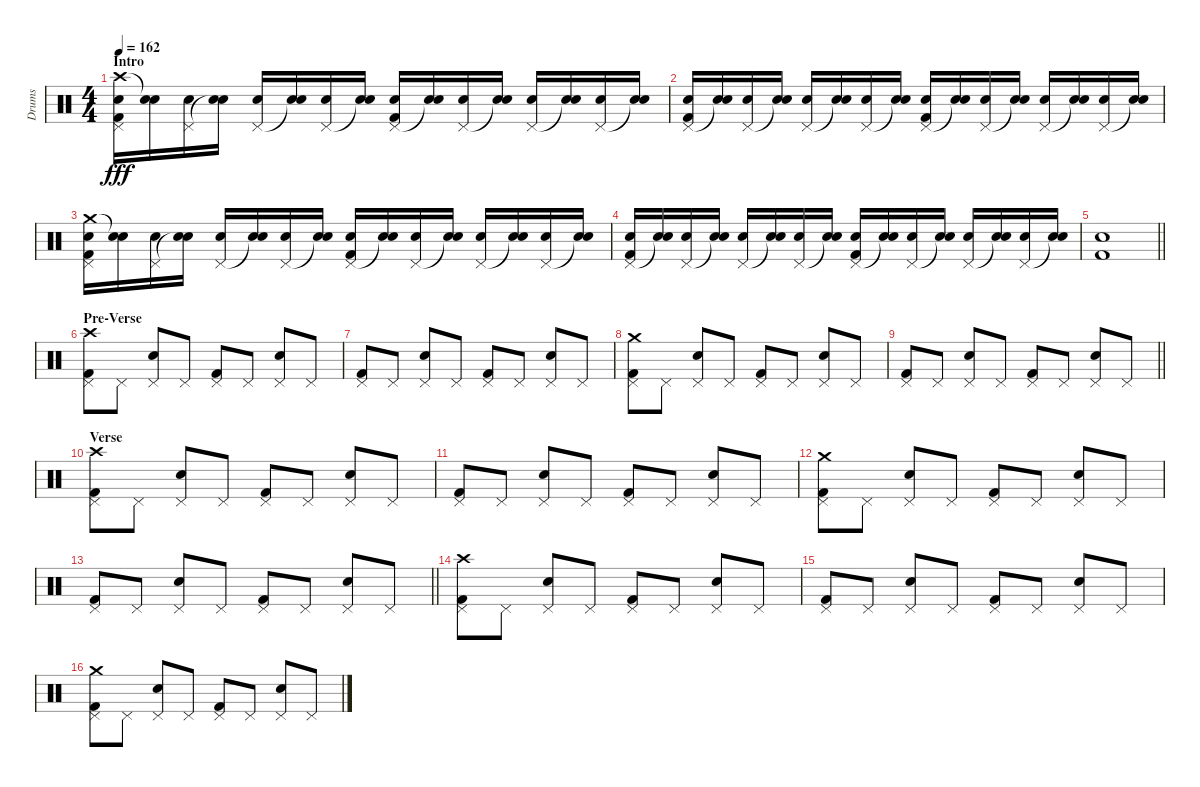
\track ("Drums" "Drums") {instrument percussion}
\staff {score}
\articulation defaults
\ts (4 4)
\section ("" "Intro")
\tempo 162
\clef neutral
\ks c
("Crash high (hit)" "Pedal Hi-Hat (hit)" "Snare (hit) 2" "Kick (hit) 2").16{dy fff} ("Snare (hit)"{t} "Snare (hit) 2").16 ("Pedal Hi-Hat (hit)" "Snare (hit) 2").16 ("Snare (hit)"{t} "Snare (hit) 2").16 ("Pedal Hi-Hat (hit)" "Snare (hit) 2").16 ("Snare (hit)"{t} "Snare (hit) 2").16 ("Pedal Hi-Hat (hit)" "Snare (hit) 2").16 ("Snare (hit)"{t} "Snare (hit) 2").16 ("Pedal Hi-Hat (hit)" "Snare (hit) 2" "Kick (hit) 2").16 ("Snare (hit)"{t} "Snare (hit) 2").16 ("Pedal Hi-Hat (hit)" "Snare (hit) 2").16 ("Snare (hit)"{t} "Snare (hit) 2").16 ("Pedal Hi-Hat (hit)" "Snare (hit) 2").16 ("Snare (hit)"{t} "Snare (hit) 2").16 ("Pedal Hi-Hat (hit)" "Snare (hit) 2").16 ("Snare (hit)"{t} "Snare (hit) 2").16 |
("Pedal Hi-Hat (hit)" "Snare (hit) 2" "Kick (hit) 2").16 ("Snare (hit)"{t} "Snare (hit) 2").16 ("Pedal Hi-Hat (hit)" "Snare (hit) 2").16 ("Snare (hit)"{t} "Snare (hit) 2").16 ("Pedal Hi-Hat (hit)" "Snare (hit) 2").16 ("Snare (hit)"{t} "Snare (hit) 2").16 ("Pedal Hi-Hat (hit)" "Snare (hit) 2").16 ("Snare (hit)"{t} "Snare (hit) 2").16 ("Pedal Hi-Hat (hit)" "Snare (hit) 2" "Kick (hit) 2").16 ("Snare (hit)"{t} "Snare (hit) 2").16 ("Pedal Hi-Hat (hit)" "Snare (hit) 2").16 ("Snare (hit)"{t} "Snare (hit) 2").16 ("Pedal Hi-Hat (hit)" "Snare (hit) 2").16 ("Snare (hit)"{t} "Snare (hit) 2").16 ("Pedal Hi-Hat (hit)" "Snare (hit) 2").16 ("Snare (hit)"{t} "Snare (hit) 2").16 |
("Crash medium (hit)" "Pedal Hi-Hat (hit)" "Snare (hit) 2" "Kick (hit) 2").16 ("Snare (hit)"{t} "Snare (hit) 2").16 ("Pedal Hi-Hat (hit)" "Snare (hit) 2").16 ("Snare (hit)"{t} "Snare (hit) 2").16 ("Pedal Hi-Hat (hit)" "Snare (hit) 2").16 ("Snare (hit)"{t} "Snare (hit) 2").16 ("Pedal Hi-Hat (hit)" "Snare (hit) 2").16 ("Snare (hit)"{t} "Snare (hit) 2").16 ("Pedal Hi-Hat (hit)" "Snare (hit) 2" "Kick (hit) 2").16 ("Snare (hit)"{t} "Snare (hit) 2").16 ("Pedal Hi-Hat (hit)" "Snare (hit) 2").16 ("Snare (hit)"{t} "Snare (hit) 2").16 ("Pedal Hi-Hat (hit)" "Snare (hit) 2").16 ("Snare (hit)"{t} "Snare (hit) 2").16 ("Pedal Hi-Hat (hit)" "Snare (hit) 2").16 ("Snare (hit)"{t} "Snare (hit) 2").16 |
("Pedal Hi-Hat (hit)" "Snare (hit) 2" "Kick (hit) 2").16 ("Snare (hit)"{t} "Snare (hit) 2").16 ("Pedal Hi-Hat (hit)" "Snare (hit) 2").16 ("Snare (hit)"{t} "Snare (hit) 2").16 ("Pedal Hi-Hat (hit)" "Snare (hit) 2").16 ("Snare (hit)"{t} "Snare (hit) 2").16 ("Pedal Hi-Hat (hit)" "Snare (hit) 2").16 ("Snare (hit)"{t} "Snare (hit) 2").16 ("Pedal Hi-Hat (hit)" "Snare (hit) 2" "Kick (hit) 2").16 ("Snare (hit)"{t} "Snare (hit) 2").16 ("Pedal Hi-Hat (hit)" "Snare (hit) 2").16 ("Snare (hit)"{t} "Snare (hit) 2").16 ("Pedal Hi-Hat (hit)" "Snare (hit) 2").16 ("Snare (hit)"{t} "Snare (hit) 2").16 ("Pedal Hi-Hat (hit)" "Snare (hit) 2").16 ("Snare (hit)"{t} "Snare (hit) 2").16 |
\barLineRight lightlight
("Snare (hit) 2" "Kick (hit) 2").1 |
\section ("" "Pre-Verse")
("Crash high (hit)" "Pedal Hi-Hat (hit)" "Kick (hit) 2").8 "Pedal Hi-Hat (hit)".8 ("Pedal Hi-Hat (hit)" "Snare (hit) 2").8 "Pedal Hi-Hat (hit)".8 ("Pedal Hi-Hat (hit)" "Kick (hit) 2").8 "Pedal Hi-Hat (hit)".8 ("Pedal Hi-Hat (hit)" "Snare (hit) 2").8 "Pedal Hi-Hat (hit)".8 |
("Pedal Hi-Hat (hit)" "Kick (hit) 2").8 "Pedal Hi-Hat (hit)".8 ("Pedal Hi-Hat (hit)" "Snare (hit) 2").8 "Pedal Hi-Hat (hit)".8 ("Pedal Hi-Hat (hit)" "Kick (hit) 2").8 "Pedal Hi-Hat (hit)".8 ("Pedal Hi-Hat (hit)" "Snare (hit) 2").8 "Pedal Hi-Hat (hit)".8 |
("Crash medium (hit)" "Pedal Hi-Hat (hit)" "Kick (hit) 2").8 "Pedal Hi-Hat (hit)".8 ("Pedal Hi-Hat (hit)" "Snare (hit) 2").8 "Pedal Hi-Hat (hit)".8 ("Pedal Hi-Hat (hit)" "Kick (hit) 2").8 "Pedal Hi-Hat (hit)".8 ("Pedal Hi-Hat (hit)" "Snare (hit) 2").8 "Pedal Hi-Hat (hit)".8 |
\barLineRight lightlight
("Pedal Hi-Hat (hit)" "Kick (hit) 2").8 "Pedal Hi-Hat (hit)".8 ("Pedal Hi-Hat (hit)" "Snare (hit) 2").8 "Pedal Hi-Hat (hit)".8 ("Pedal Hi-Hat (hit)" "Kick (hit) 2").8 "Pedal Hi-Hat (hit)".8 ("Pedal Hi-Hat (hit)" "Snare (hit) 2").8 "Pedal Hi-Hat (hit)".8 |
\section ("" "Verse")
("Crash high (hit)" "Pedal Hi-Hat (hit)" "Kick (hit) 2").8 "Pedal Hi-Hat (hit)".8 ("Pedal Hi-Hat (hit)" "Snare (hit) 2").8 "Pedal Hi-Hat (hit)".8 ("Pedal Hi-Hat (hit)" "Kick (hit) 2").8 "Pedal Hi-Hat (hit)".8 ("Pedal Hi-Hat (hit)" "Snare (hit) 2").8 "Pedal Hi-Hat (hit)".8 |
("Pedal Hi-Hat (hit)" "Kick (hit) 2").8 "Pedal Hi-Hat (hit)".8 ("Pedal Hi-Hat (hit)" "Snare (hit) 2").8 "Pedal Hi-Hat (hit)".8 ("Pedal Hi-Hat (hit)" "Kick (hit) 2").8 "Pedal Hi-Hat (hit)".8 ("Pedal Hi-Hat (hit)" "Snare (hit) 2").8 "Pedal Hi-Hat (hit)".8 |
("Crash medium (hit)" "Pedal Hi-Hat (hit)" "Kick (hit) 2").8 "Pedal Hi-Hat (hit)".8 ("Pedal Hi-Hat (hit)" "Snare (hit) 2").8 "Pedal Hi-Hat (hit)".8 ("Pedal Hi-Hat (hit)" "Kick (hit) 2").8 "Pedal Hi-Hat (hit)".8 ("Pedal Hi-Hat (hit)" "Snare (hit) 2").8 "Pedal Hi-Hat (hit)".8 |
\barLineRight lightlight
("Pedal Hi-Hat (hit)" "Kick (hit) 2").8 "Pedal Hi-Hat (hit)".8 ("Pedal Hi-Hat (hit)" "Snare (hit) 2").8 "Pedal Hi-Hat (hit)".8 ("Pedal Hi-Hat (hit)" "Kick (hit) 2").8 "Pedal Hi-Hat (hit)".8 ("Pedal Hi-Hat (hit)" "Snare (hit) 2").8 "Pedal Hi-Hat (hit)".8 |
("Crash high (hit)" "Pedal Hi-Hat (hit)" "Kick (hit) 2").8 "Pedal Hi-Hat (hit)".8 ("Pedal Hi-Hat (hit)" "Snare (hit) 2").8 "Pedal Hi-Hat (hit)".8 ("Pedal Hi-Hat (hit)" "Kick (hit) 2").8 "Pedal Hi-Hat (hit)".8 ("Pedal Hi-Hat (hit)" "Snare (hit) 2").8 "Pedal Hi-Hat (hit)".8 |
("Pedal Hi-Hat (hit)" "Kick (hit) 2").8 "Pedal Hi-Hat (hit)".8 ("Pedal Hi-Hat (hit)" "Snare (hit) 2").8 "Pedal Hi-Hat (hit)".8 ("Pedal Hi-Hat (hit)" "Kick (hit) 2").8 "Pedal Hi-Hat (hit)".8 ("Pedal Hi-Hat (hit)" "Snare (hit) 2").8 "Pedal Hi-Hat (hit)".8 |
("Crash medium (hit)" "Pedal Hi-Hat (hit)" "Kick (hit) 2").8 "Pedal Hi-Hat (hit)".8 ("Pedal Hi-Hat (hit)" "Snare (hit) 2").8 "Pedal Hi-Hat (hit)".8 ("Pedal Hi-Hat (hit)" "Kick (hit) 2").8 "Pedal Hi-Hat (hit)".8 ("Pedal Hi-Hat (hit)" "Snare (hit) 2").8 "Pedal Hi-Hat (hit)".8
